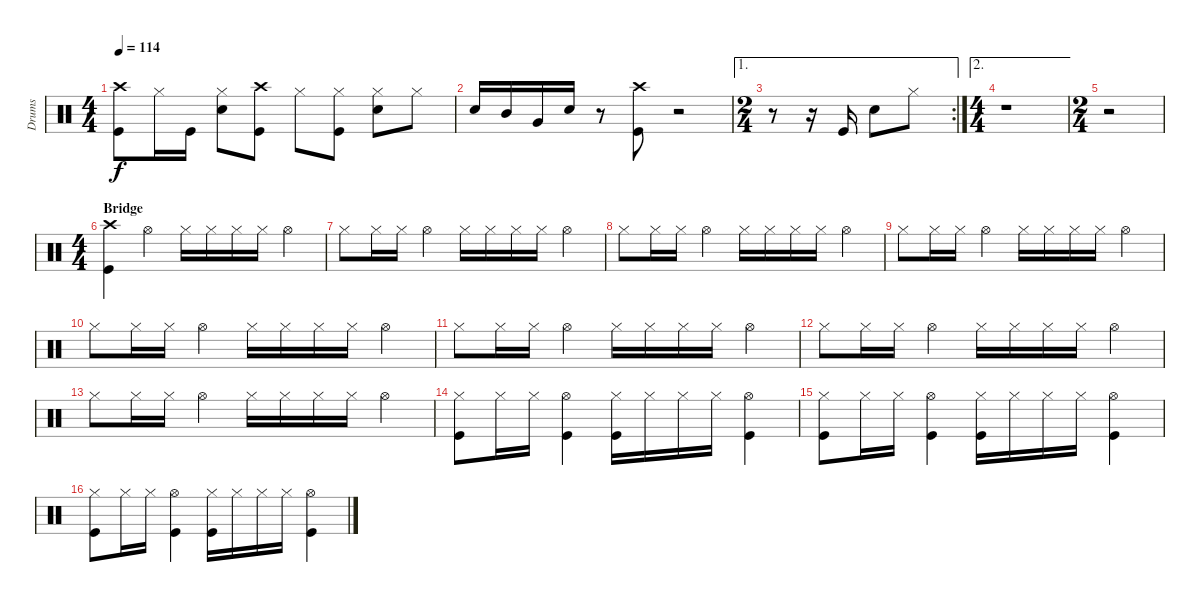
\track ("Drums" "Drums") {instrument percussion}
\staff {score}
\articulation defaults
\ts (4 4)
\tempo 114
\clef neutral
\ks c
("Crash high (hit)" "Kick (hit)").8{dy f} "Hi-Hat (closed)".16 "Kick (hit)".16 ("Hi-Hat (closed)" "Snare (hit) 2").8 ("Crash high (hit)" "Kick (hit)").8 "Hi-Hat (closed)".8 ("Hi-Hat (closed)" "Kick (hit)").8 ("Hi-Hat (closed)" "Snare (hit) 2").8 "Hi-Hat (closed)".8 |
"Snare (hit) 2".16 "Mid Tom (hit)".16 "Very Low Tom (hit)".16 "Snare (hit) 2".16 r.8 ("Crash high (hit)" "Kick (hit)").8 r.2 |
\ae 1
\rc 2
\ts (2 4)
r.8 r.16 "Kick (hit)".16 "Snare (hit) 2".8 "Hi-Hat (closed)".8 |
\ae 2
\ts (4 4)
r.1 |
\ts (2 4)
r.2 |
\ts (4 4)
\section ("" "Bridge")
("Crash high (hit)" "Kick (hit)").4 "Hi-Hat (open)".4 "Hi-Hat (closed)".16 "Hi-Hat (closed)".16 "Hi-Hat (closed)".16 "Hi-Hat (closed)".16 "Hi-Hat (open)".4 |
"Hi-Hat (closed)".8 "Hi-Hat (closed)".16 "Hi-Hat (closed)".16 "Hi-Hat (open)".4 "Hi-Hat (closed)".16 "Hi-Hat (closed)".16 "Hi-Hat (closed)".16 "Hi-Hat (closed)".16 "Hi-Hat (open)".4 |
"Hi-Hat (closed)".8 "Hi-Hat (closed)".16 "Hi-Hat (closed)".16 "Hi-Hat (open)".4 "Hi-Hat (closed)".16 "Hi-Hat (closed)".16 "Hi-Hat (closed)".16 "Hi-Hat (closed)".16 "Hi-Hat (open)".4 |
"Hi-Hat (closed)".8 "Hi-Hat (closed)".16 "Hi-Hat (closed)".16 "Hi-Hat (open)".4 "Hi-Hat (closed)".16 "Hi-Hat (closed)".16 "Hi-Hat (closed)".16 "Hi-Hat (closed)".16 "Hi-Hat (open)".4 |
"Hi-Hat (closed)".8 "Hi-Hat (closed)".16 "Hi-Hat (closed)".16 "Hi-Hat (open)".4 "Hi-Hat (closed)".16 "Hi-Hat (closed)".16 "Hi-Hat (closed)".16 "Hi-Hat (closed)".16 "Hi-Hat (open)".4 |
"Hi-Hat (closed)".8 "Hi-Hat (closed)".16 "Hi-Hat (closed)".16 "Hi-Hat (open)".4 "Hi-Hat (closed)".16 "Hi-Hat (closed)".16 "Hi-Hat (closed)".16 "Hi-Hat (closed)".16 "Hi-Hat (open)".4 |
"Hi-Hat (closed)".8 "Hi-Hat (closed)".16 "Hi-Hat (closed)".16 "Hi-Hat (open)".4 "Hi-Hat (closed)".16 "Hi-Hat (closed)".16 "Hi-Hat (closed)".16 "Hi-Hat (closed)".16 "Hi-Hat (open)".4 |
"Hi-Hat (closed)".8 "Hi-Hat (closed)".16 "Hi-Hat (closed)".16 "Hi-Hat (open)".4 "Hi-Hat (closed)".16 "Hi-Hat (closed)".16 "Hi-Hat (closed)".16 "Hi-Hat (closed)".16 "Hi-Hat (open)".4 |
("Hi-Hat (closed)" "Kick (hit)").8 "Hi-Hat (closed)".16 "Hi-Hat (closed)".16 ("Hi-Hat (open)" "Kick (hit)").4 ("Hi-Hat (closed)" "Kick (hit)").16 "Hi-Hat (closed)".16 "Hi-Hat (closed)".16 "Hi-Hat (closed)".16 ("Hi-Hat (open)" "Kick (hit)").4 |
("Hi-Hat (closed)" "Kick (hit)").8 "Hi-Hat (closed)".16 "Hi-Hat (closed)".16 ("Hi-Hat (open)" "Kick (hit)").4 ("Hi-Hat (closed)" "Kick (hit)").16 "Hi-Hat (closed)".16 "Hi-Hat (closed)".16 "Hi-Hat (closed)".16 ("Hi-Hat (open)" "Kick (hit)").4 |
("Hi-Hat (closed)" "Kick (hit)").8 "Hi-Hat (closed)".16 "Hi-Hat (closed)".16 ("Hi-Hat (open)" "Kick (hit)").4 ("Hi-Hat (closed)" "Kick (hit)").16 "Hi-Hat (closed)".16 "Hi-Hat (closed)".16 "Hi-Hat (closed)".16 ("Hi-Hat (open)" "Kick (hit)").4
